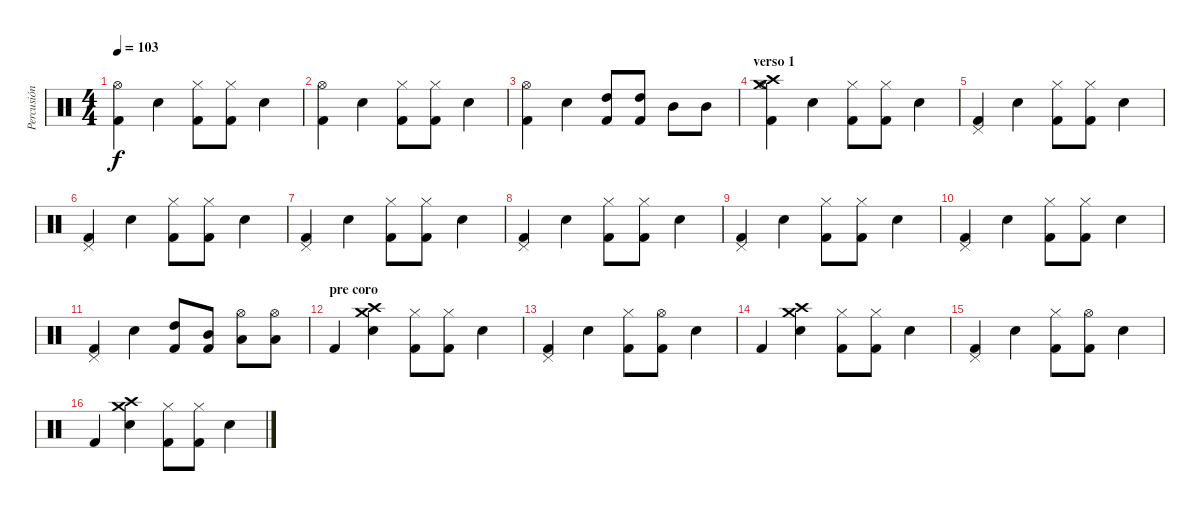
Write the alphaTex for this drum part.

\track ("Percusión" "Percusión") {instrument percussion}
\staff {score}
\articulation defaults
\ts (4 4)
\tempo 103
\clef neutral
\ks c
("Hi-Hat (open)" "Kick (hit) 2").4{dy f} "Electric Snare (hit)".4 ("Hi-Hat (closed)" "Kick (hit) 2").8 ("Hi-Hat (closed)" "Kick (hit) 2").8 "Electric Snare (hit)".4 |
("Hi-Hat (open)" "Kick (hit) 2").4 "Electric Snare (hit)".4 ("Hi-Hat (closed)" "Kick (hit) 2").8 ("Hi-Hat (closed)" "Kick (hit) 2").8 "Electric Snare (hit)".4 |
("Hi-Hat (open)" "Kick (hit) 2").4 "Electric Snare (hit)".4 ("High Tom (hit)" "Kick (hit) 2").8 ("High Tom (hit)" "Kick (hit) 2").8 "Mid Tom (hit)".8 "Mid Tom (hit)".8 |
\section ("" "verso 1")
("Crash medium (hit)" "Crash high (hit)" "Hi-Hat (open)" "Kick (hit) 2").4 "Electric Snare (hit)".4 ("Hi-Hat (closed)" "Kick (hit) 2").8 ("Hi-Hat (closed)" "Kick (hit) 2").8 "Electric Snare (hit)".4 |
("Pedal Hi-Hat (hit)" "Kick (hit) 2").4 "Electric Snare (hit)".4 ("Hi-Hat (closed)" "Kick (hit) 2").8 ("Hi-Hat (closed)" "Kick (hit) 2").8 "Electric Snare (hit)".4 |
("Pedal Hi-Hat (hit)" "Kick (hit) 2").4 "Electric Snare (hit)".4 ("Hi-Hat (closed)" "Kick (hit) 2").8 ("Hi-Hat (closed)" "Kick (hit) 2").8 "Electric Snare (hit)".4 |
("Pedal Hi-Hat (hit)" "Kick (hit) 2").4 "Electric Snare (hit)".4 ("Hi-Hat (closed)" "Kick (hit) 2").8 ("Hi-Hat (closed)" "Kick (hit) 2").8 "Electric Snare (hit)".4 |
("Pedal Hi-Hat (hit)" "Kick (hit) 2").4 "Electric Snare (hit)".4 ("Hi-Hat (closed)" "Kick (hit) 2").8 ("Hi-Hat (closed)" "Kick (hit) 2").8 "Electric Snare (hit)".4 |
("Pedal Hi-Hat (hit)" "Kick (hit) 2").4 "Electric Snare (hit)".4 ("Hi-Hat (closed)" "Kick (hit) 2").8 ("Hi-Hat (closed)" "Kick (hit) 2").8 "Electric Snare (hit)".4 |
("Pedal Hi-Hat (hit)" "Kick (hit) 2").4 "Electric Snare (hit)".4 ("Hi-Hat (closed)" "Kick (hit) 2").8 ("Hi-Hat (closed)" "Kick (hit) 2").8 "Electric Snare (hit)".4 |
("Pedal Hi-Hat (hit)" "Kick (hit) 2").4 "Electric Snare (hit)".4 ("High Tom (hit)" "Kick (hit) 2").8 ("Mid Tom (hit)" "Kick (hit) 2").8 ("Low Tom (hit)" "Hi-Hat (open)").8 ("Low Tom (hit)" "Hi-Hat (open)").8 |
\section ("" "pre coro")
"Kick (hit) 2".4 ("Crash medium (hit)" "Crash high (hit)" "Electric Snare (hit)").4 ("Hi-Hat (closed)" "Kick (hit) 2").8 ("Hi-Hat (closed)" "Kick (hit) 2").8 "Electric Snare (hit)".4 |
("Pedal Hi-Hat (hit)" "Kick (hit) 2").4 "Electric Snare (hit)".4 ("Hi-Hat (closed)" "Kick (hit) 2").8 ("Hi-Hat (open)" "Kick (hit) 2").8 "Electric Snare (hit)".4 |
"Kick (hit) 2".4 ("Crash medium (hit)" "Crash high (hit)" "Electric Snare (hit)").4 ("Hi-Hat (closed)" "Kick (hit) 2").8 ("Hi-Hat (closed)" "Kick (hit) 2").8 "Electric Snare (hit)".4 |
("Pedal Hi-Hat (hit)" "Kick (hit) 2").4 "Electric Snare (hit)".4 ("Hi-Hat (closed)" "Kick (hit) 2").8 ("Hi-Hat (open)" "Kick (hit) 2").8 "Electric Snare (hit)".4 |
"Kick (hit) 2".4 ("Crash medium (hit)" "Crash high (hit)" "Electric Snare (hit)").4 ("Hi-Hat (closed)" "Kick (hit) 2").8 ("Hi-Hat (closed)" "Kick (hit) 2").8 "Electric Snare (hit)".4
